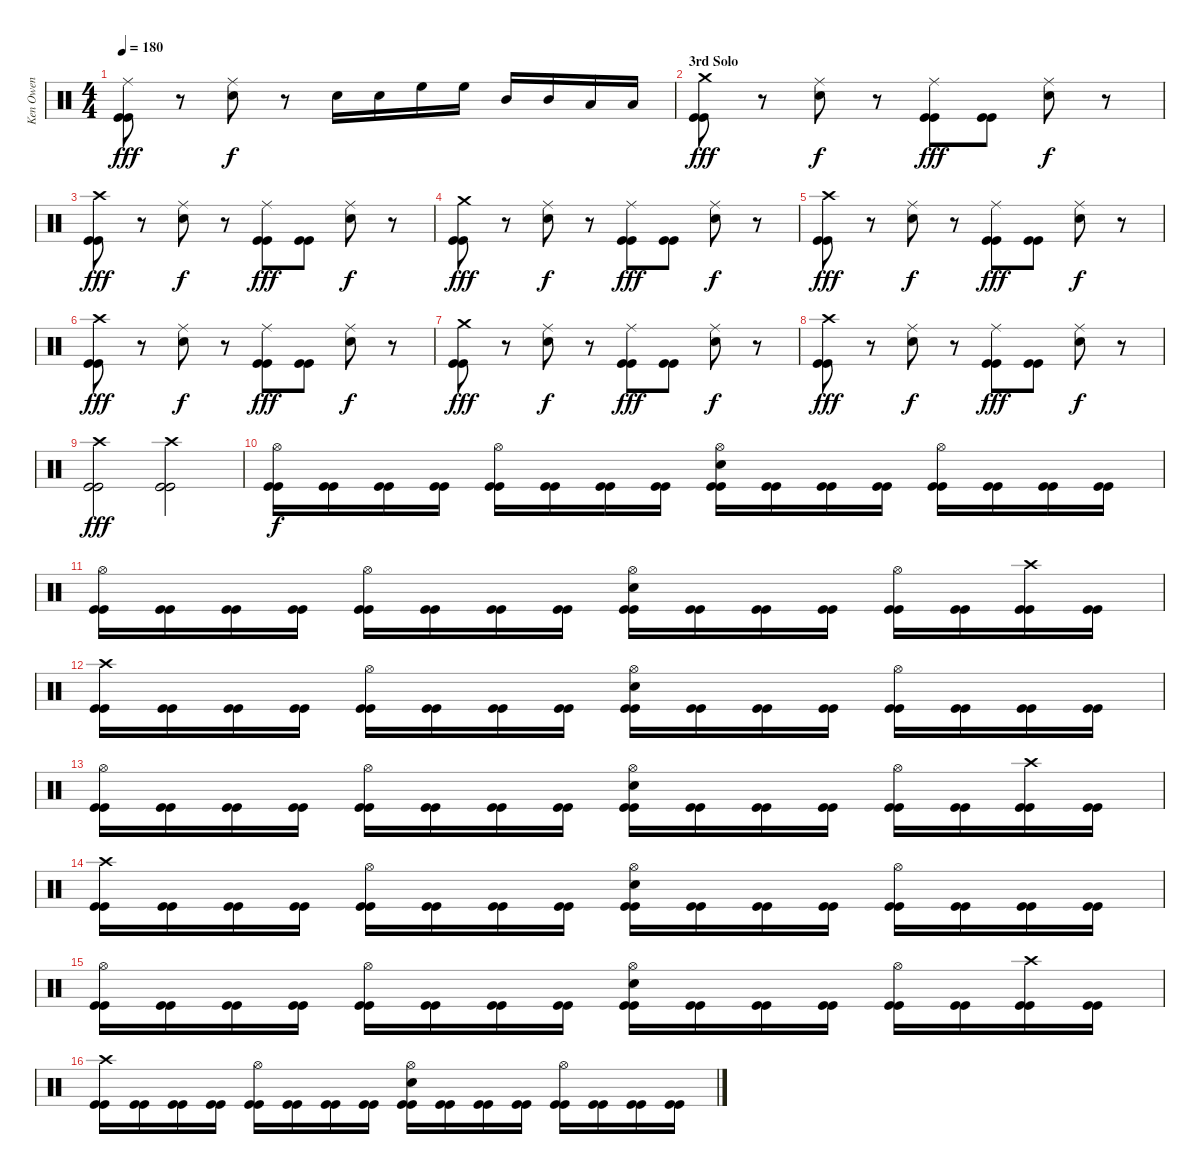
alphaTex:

\track ("Ken Owen" "Ken Owen") {instrument percussion}
\staff {score}
\articulation defaults
\ts (4 4)
\tempo 180
\clef neutral
\ks c
("Ride (middle)" "Kick (hit)" "Kick (hit)").8{dy fff} r.8 ("Ride (middle)" "Snare (hit) 2").8{dy f} r.8 "Snare (hit) 2".16 "Snare (hit) 2".16 "High Floor Tom (hit)".16 "High Floor Tom (hit)".16 "Mid Tom (hit)".16 "Mid Tom (hit)".16 "Low Tom (hit)".16 "Low Tom (hit)".16 |
\section ("" "3rd Solo")
("Crash medium (hit)" "Kick (hit)" "Kick (hit)").8{dy fff} r.8 ("Ride (middle)" "Snare (hit) 2").8{dy f} r.8 ("Ride (middle)" "Kick (hit)" "Kick (hit)").8{dy fff} ("Kick (hit)" "Kick (hit)").8 ("Ride (middle)" "Snare (hit) 2").8{dy f} r.8 |
("Crash high (hit)" "Kick (hit)" "Kick (hit)").8{dy fff} r.8 ("Ride (middle)" "Snare (hit) 2").8{dy f} r.8 ("Ride (middle)" "Kick (hit)" "Kick (hit)").8{dy fff} ("Kick (hit)" "Kick (hit)").8 ("Ride (middle)" "Snare (hit) 2").8{dy f} r.8 |
("Crash medium (hit)" "Kick (hit)" "Kick (hit)").8{dy fff} r.8 ("Ride (middle)" "Snare (hit) 2").8{dy f} r.8 ("Ride (middle)" "Kick (hit)" "Kick (hit)").8{dy fff} ("Kick (hit)" "Kick (hit)").8 ("Ride (middle)" "Snare (hit) 2").8{dy f} r.8 |
("Crash high (hit)" "Kick (hit)" "Kick (hit)").8{dy fff} r.8 ("Ride (middle)" "Snare (hit) 2").8{dy f} r.8 ("Ride (middle)" "Kick (hit)" "Kick (hit)").8{dy fff} ("Kick (hit)" "Kick (hit)").8 ("Ride (middle)" "Snare (hit) 2").8{dy f} r.8 |
("Crash high (hit)" "Kick (hit)" "Kick (hit)").8{dy fff} r.8 ("Ride (middle)" "Snare (hit) 2").8{dy f} r.8 ("Ride (middle)" "Kick (hit)" "Kick (hit)").8{dy fff} ("Kick (hit)" "Kick (hit)").8 ("Ride (middle)" "Snare (hit) 2").8{dy f} r.8 |
("Crash medium (hit)" "Kick (hit)" "Kick (hit)").8{dy fff} r.8 ("Ride (middle)" "Snare (hit) 2").8{dy f} r.8 ("Ride (middle)" "Kick (hit)" "Kick (hit)").8{dy fff} ("Kick (hit)" "Kick (hit)").8 ("Ride (middle)" "Snare (hit) 2").8{dy f} r.8 |
("Crash high (hit)" "Kick (hit)" "Kick (hit)").8{dy fff} r.8 ("Ride (middle)" "Snare (hit) 2").8{dy f} r.8 ("Ride (middle)" "Kick (hit)" "Kick (hit)").8{dy fff} ("Kick (hit)" "Kick (hit)").8 ("Ride (middle)" "Snare (hit) 2").8{dy f} r.8 |
("Crash high (hit)" "Kick (hit)" "Kick (hit)").2{dy fff} ("Crash high (hit)" "Kick (hit)" "Kick (hit)").2 |
("Hi-Hat (open)" "Kick (hit)" "Kick (hit)").16{dy f} ("Kick (hit)" "Kick (hit)").16 ("Kick (hit)" "Kick (hit)").16 ("Kick (hit)" "Kick (hit)").16 ("Hi-Hat (open)" "Kick (hit)" "Kick (hit)").16 ("Kick (hit)" "Kick (hit)").16 ("Kick (hit)" "Kick (hit)").16 ("Kick (hit)" "Kick (hit)").16 ("Hi-Hat (open)" "Snare (hit) 2" "Kick (hit)" "Kick (hit)").16 ("Kick (hit)" "Kick (hit)").16 ("Kick (hit)" "Kick (hit)").16 ("Kick (hit)" "Kick (hit)").16 ("Hi-Hat (open)" "Kick (hit)" "Kick (hit)").16 ("Kick (hit)" "Kick (hit)").16 ("Kick (hit)" "Kick (hit)").16 ("Kick (hit)" "Kick (hit)").16 |
("Hi-Hat (open)" "Kick (hit)" "Kick (hit)").16 ("Kick (hit)" "Kick (hit)").16 ("Kick (hit)" "Kick (hit)").16 ("Kick (hit)" "Kick (hit)").16 ("Hi-Hat (open)" "Kick (hit)" "Kick (hit)").16 ("Kick (hit)" "Kick (hit)").16 ("Kick (hit)" "Kick (hit)").16 ("Kick (hit)" "Kick (hit)").16 ("Hi-Hat (open)" "Snare (hit) 2" "Kick (hit)" "Kick (hit)").16 ("Kick (hit)" "Kick (hit)").16 ("Kick (hit)" "Kick (hit)").16 ("Kick (hit)" "Kick (hit)").16 ("Hi-Hat (open)" "Kick (hit)" "Kick (hit)").16 ("Kick (hit)" "Kick (hit)").16 ("Crash high (hit)" "Kick (hit)" "Kick (hit)").16 ("Kick (hit)" "Kick (hit)").16 |
("Crash high (hit)" "Kick (hit)" "Kick (hit)").16 ("Kick (hit)" "Kick (hit)").16 ("Kick (hit)" "Kick (hit)").16 ("Kick (hit)" "Kick (hit)").16 ("Hi-Hat (open)" "Kick (hit)" "Kick (hit)").16 ("Kick (hit)" "Kick (hit)").16 ("Kick (hit)" "Kick (hit)").16 ("Kick (hit)" "Kick (hit)").16 ("Hi-Hat (open)" "Snare (hit) 2" "Kick (hit)" "Kick (hit)").16 ("Kick (hit)" "Kick (hit)").16 ("Kick (hit)" "Kick (hit)").16 ("Kick (hit)" "Kick (hit)").16 ("Hi-Hat (open)" "Kick (hit)" "Kick (hit)").16 ("Kick (hit)" "Kick (hit)").16 ("Kick (hit)" "Kick (hit)").16 ("Kick (hit)" "Kick (hit)").16 |
("Hi-Hat (open)" "Kick (hit)" "Kick (hit)").16 ("Kick (hit)" "Kick (hit)").16 ("Kick (hit)" "Kick (hit)").16 ("Kick (hit)" "Kick (hit)").16 ("Hi-Hat (open)" "Kick (hit)" "Kick (hit)").16 ("Kick (hit)" "Kick (hit)").16 ("Kick (hit)" "Kick (hit)").16 ("Kick (hit)" "Kick (hit)").16 ("Hi-Hat (open)" "Snare (hit) 2" "Kick (hit)" "Kick (hit)").16 ("Kick (hit)" "Kick (hit)").16 ("Kick (hit)" "Kick (hit)").16 ("Kick (hit)" "Kick (hit)").16 ("Hi-Hat (open)" "Kick (hit)" "Kick (hit)").16 ("Kick (hit)" "Kick (hit)").16 ("Crash high (hit)" "Kick (hit)" "Kick (hit)").16 ("Kick (hit)" "Kick (hit)").16 |
("Crash high (hit)" "Kick (hit)" "Kick (hit)").16 ("Kick (hit)" "Kick (hit)").16 ("Kick (hit)" "Kick (hit)").16 ("Kick (hit)" "Kick (hit)").16 ("Hi-Hat (open)" "Kick (hit)" "Kick (hit)").16 ("Kick (hit)" "Kick (hit)").16 ("Kick (hit)" "Kick (hit)").16 ("Kick (hit)" "Kick (hit)").16 ("Hi-Hat (open)" "Snare (hit) 2" "Kick (hit)" "Kick (hit)").16 ("Kick (hit)" "Kick (hit)").16 ("Kick (hit)" "Kick (hit)").16 ("Kick (hit)" "Kick (hit)").16 ("Hi-Hat (open)" "Kick (hit)" "Kick (hit)").16 ("Kick (hit)" "Kick (hit)").16 ("Kick (hit)" "Kick (hit)").16 ("Kick (hit)" "Kick (hit)").16 |
("Hi-Hat (open)" "Kick (hit)" "Kick (hit)").16 ("Kick (hit)" "Kick (hit)").16 ("Kick (hit)" "Kick (hit)").16 ("Kick (hit)" "Kick (hit)").16 ("Hi-Hat (open)" "Kick (hit)" "Kick (hit)").16 ("Kick (hit)" "Kick (hit)").16 ("Kick (hit)" "Kick (hit)").16 ("Kick (hit)" "Kick (hit)").16 ("Hi-Hat (open)" "Snare (hit) 2" "Kick (hit)" "Kick (hit)").16 ("Kick (hit)" "Kick (hit)").16 ("Kick (hit)" "Kick (hit)").16 ("Kick (hit)" "Kick (hit)").16 ("Hi-Hat (open)" "Kick (hit)" "Kick (hit)").16 ("Kick (hit)" "Kick (hit)").16 ("Crash high (hit)" "Kick (hit)" "Kick (hit)").16 ("Kick (hit)" "Kick (hit)").16 |
("Crash high (hit)" "Kick (hit)" "Kick (hit)").16 ("Kick (hit)" "Kick (hit)").16 ("Kick (hit)" "Kick (hit)").16 ("Kick (hit)" "Kick (hit)").16 ("Hi-Hat (open)" "Kick (hit)" "Kick (hit)").16 ("Kick (hit)" "Kick (hit)").16 ("Kick (hit)" "Kick (hit)").16 ("Kick (hit)" "Kick (hit)").16 ("Hi-Hat (open)" "Snare (hit) 2" "Kick (hit)" "Kick (hit)").16 ("Kick (hit)" "Kick (hit)").16 ("Kick (hit)" "Kick (hit)").16 ("Kick (hit)" "Kick (hit)").16 ("Hi-Hat (open)" "Kick (hit)" "Kick (hit)").16 ("Kick (hit)" "Kick (hit)").16 ("Kick (hit)" "Kick (hit)").16 ("Kick (hit)" "Kick (hit)").16
